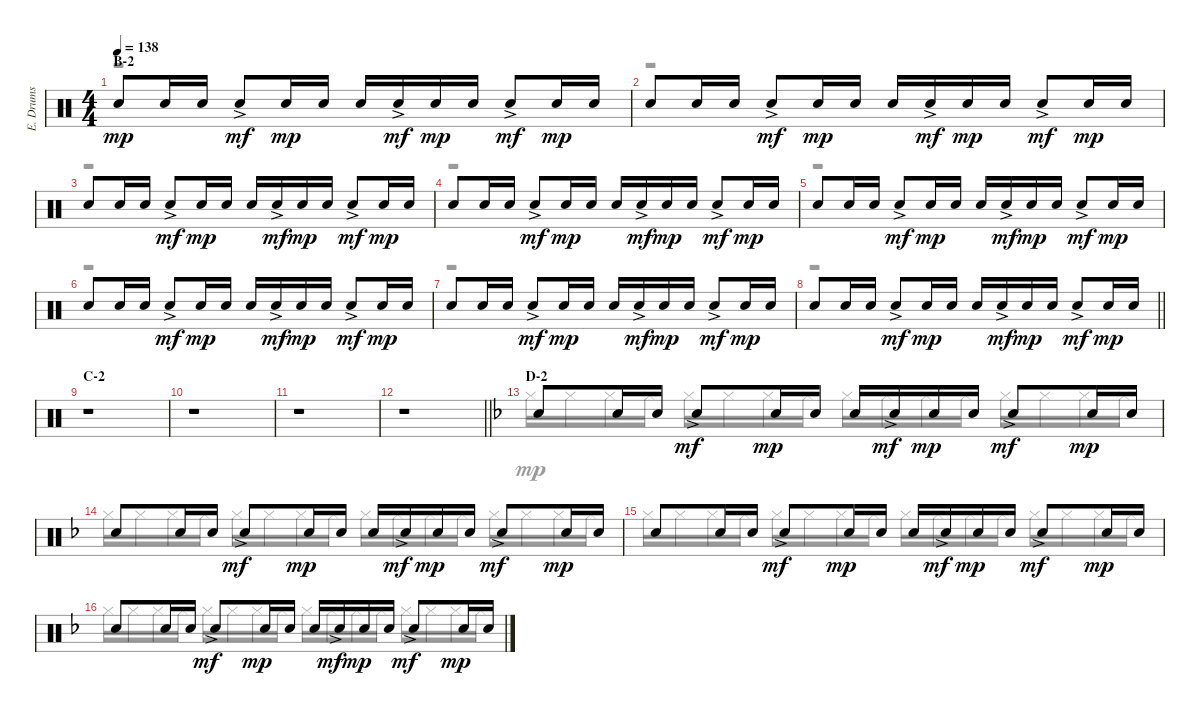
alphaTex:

\track ("E. Drums" "E. Drums") {instrument percussion}
\staff {score}
\articulation defaults
\voice
\ts (4 4)
\section ("" "B-2")
\tempo 138
\clef neutral
\ks c "Electric Snare (hit)".8{dy mp} "Electric Snare (hit)".16 "Electric Snare (hit)".16 "Electric Snare (hit)"{ac}.8{dy mf} "Electric Snare (hit)".16{dy mp} "Electric Snare (hit)".16 "Electric Snare (hit)".16 "Electric Snare (hit)"{ac}.16{dy mf} "Electric Snare (hit)".16{dy mp} "Electric Snare (hit)".16 "Electric Snare (hit)"{ac}.8{dy mf} "Electric Snare (hit)".16{dy mp} "Electric Snare (hit)".16
|
"Electric Snare (hit)".8 "Electric Snare (hit)".16 "Electric Snare (hit)".16 "Electric Snare (hit)"{ac}.8{dy mf} "Electric Snare (hit)".16{dy mp} "Electric Snare (hit)".16 "Electric Snare (hit)".16 "Electric Snare (hit)"{ac}.16{dy mf} "Electric Snare (hit)".16{dy mp} "Electric Snare (hit)".16 "Electric Snare (hit)"{ac}.8{dy mf} "Electric Snare (hit)".16{dy mp} "Electric Snare (hit)".16 |
"Electric Snare (hit)".8 "Electric Snare (hit)".16 "Electric Snare (hit)".16 "Electric Snare (hit)"{ac}.8{dy mf} "Electric Snare (hit)".16{dy mp} "Electric Snare (hit)".16 "Electric Snare (hit)".16 "Electric Snare (hit)"{ac}.16{dy mf} "Electric Snare (hit)".16{dy mp} "Electric Snare (hit)".16 "Electric Snare (hit)"{ac}.8{dy mf} "Electric Snare (hit)".16{dy mp} "Electric Snare (hit)".16 |
"Electric Snare (hit)".8 "Electric Snare (hit)".16 "Electric Snare (hit)".16 "Electric Snare (hit)"{ac}.8{dy mf} "Electric Snare (hit)".16{dy mp} "Electric Snare (hit)".16 "Electric Snare (hit)".16 "Electric Snare (hit)"{ac}.16{dy mf} "Electric Snare (hit)".16{dy mp} "Electric Snare (hit)".16 "Electric Snare (hit)"{ac}.8{dy mf} "Electric Snare (hit)".16{dy mp} "Electric Snare (hit)".16 |
"Electric Snare (hit)".8 "Electric Snare (hit)".16 "Electric Snare (hit)".16 "Electric Snare (hit)"{ac}.8{dy mf} "Electric Snare (hit)".16{dy mp} "Electric Snare (hit)".16 "Electric Snare (hit)".16 "Electric Snare (hit)"{ac}.16{dy mf} "Electric Snare (hit)".16{dy mp} "Electric Snare (hit)".16 "Electric Snare (hit)"{ac}.8{dy mf} "Electric Snare (hit)".16{dy mp} "Electric Snare (hit)".16 |
"Electric Snare (hit)".8 "Electric Snare (hit)".16 "Electric Snare (hit)".16 "Electric Snare (hit)"{ac}.8{dy mf} "Electric Snare (hit)".16{dy mp} "Electric Snare (hit)".16 "Electric Snare (hit)".16 "Electric Snare (hit)"{ac}.16{dy mf} "Electric Snare (hit)".16{dy mp} "Electric Snare (hit)".16 "Electric Snare (hit)"{ac}.8{dy mf} "Electric Snare (hit)".16{dy mp} "Electric Snare (hit)".16 |
"Electric Snare (hit)".8 "Electric Snare (hit)".16 "Electric Snare (hit)".16 "Electric Snare (hit)"{ac}.8{dy mf} "Electric Snare (hit)".16{dy mp} "Electric Snare (hit)".16 "Electric Snare (hit)".16 "Electric Snare (hit)"{ac}.16{dy mf} "Electric Snare (hit)".16{dy mp} "Electric Snare (hit)".16 "Electric Snare (hit)"{ac}.8{dy mf} "Electric Snare (hit)".16{dy mp} "Electric Snare (hit)".16 |
\barLineRight lightlight "Electric Snare (hit)".8 "Electric Snare (hit)".16 "Electric Snare (hit)".16 "Electric Snare (hit)"{ac}.8{dy mf} "Electric Snare (hit)".16{dy mp} "Electric Snare (hit)".16 "Electric Snare (hit)".16 "Electric Snare (hit)"{ac}.16{dy mf} "Electric Snare (hit)".16{dy mp} "Electric Snare (hit)".16 "Electric Snare (hit)"{ac}.8{dy mf} "Electric Snare (hit)".16{dy mp} "Electric Snare (hit)".16
|
\section ("" "C-2")
r.1 |
r.1 |
r.1 |
\barLineRight lightlight
r.1 |
\section ("" "D-2")
\ks f "Electric Snare (hit)".8 "Electric Snare (hit)".16 "Electric Snare (hit)".16 "Electric Snare (hit)"{ac}.8{dy mf} "Electric Snare (hit)".16{dy mp} "Electric Snare (hit)".16 "Electric Snare (hit)".16 "Electric Snare (hit)"{ac}.16{dy mf} "Electric Snare (hit)".16{dy mp} "Electric Snare (hit)".16 "Electric Snare (hit)"{ac}.8{dy mf} "Electric Snare (hit)".16{dy mp} "Electric Snare (hit)".16
|
"Electric Snare (hit)".8 "Electric Snare (hit)".16 "Electric Snare (hit)".16 "Electric Snare (hit)"{ac}.8{dy mf} "Electric Snare (hit)".16{dy mp} "Electric Snare (hit)".16 "Electric Snare (hit)".16 "Electric Snare (hit)"{ac}.16{dy mf} "Electric Snare (hit)".16{dy mp} "Electric Snare (hit)".16 "Electric Snare (hit)"{ac}.8{dy mf} "Electric Snare (hit)".16{dy mp} "Electric Snare (hit)".16 |
"Electric Snare (hit)".8 "Electric Snare (hit)".16 "Electric Snare (hit)".16 "Electric Snare (hit)"{ac}.8{dy mf} "Electric Snare (hit)".16{dy mp} "Electric Snare (hit)".16 "Electric Snare (hit)".16 "Electric Snare (hit)"{ac}.16{dy mf} "Electric Snare (hit)".16{dy mp} "Electric Snare (hit)".16 "Electric Snare (hit)"{ac}.8{dy mf} "Electric Snare (hit)".16{dy mp} "Electric Snare (hit)".16 |
"Electric Snare (hit)".8 "Electric Snare (hit)".16 "Electric Snare (hit)".16 "Electric Snare (hit)"{ac}.8{dy mf} "Electric Snare (hit)".16{dy mp} "Electric Snare (hit)".16 "Electric Snare (hit)".16 "Electric Snare (hit)"{ac}.16{dy mf} "Electric Snare (hit)".16{dy mp} "Electric Snare (hit)".16 "Electric Snare (hit)"{ac}.8{dy mf} "Electric Snare (hit)".16{dy mp} "Electric Snare (hit)".16
\voice
\clef neutral
\ottava regular
\simile none
\ks c
r.1{dy mp} |
r.1 |
r.1 |
r.1 |
r.1 |
r.1 |
r.1 |
\barLineRight lightlight
r.1 |
r.1 |
r.1 |
r.1 |
\barLineRight lightlight
r.1 |
\ks f "Hi-Hat (closed)".16 "Hi-Hat (closed)".16 "Hi-Hat (closed)".16 "Hi-Hat (closed)".16 "Hi-Hat (closed)".16 "Hi-Hat (closed)".16 "Hi-Hat (closed)".16 "Hi-Hat (closed)".16 "Hi-Hat (closed)".16 "Hi-Hat (closed)".16 "Hi-Hat (closed)".16 "Hi-Hat (closed)".16 "Hi-Hat (closed)".16 "Hi-Hat (closed)".16 "Hi-Hat (closed)".16 "Hi-Hat (closed)".16
|
"Hi-Hat (closed)".16 "Hi-Hat (closed)".16 "Hi-Hat (closed)".16 "Hi-Hat (closed)".16 "Hi-Hat (closed)".16 "Hi-Hat (closed)".16 "Hi-Hat (closed)".16 "Hi-Hat (closed)".16 "Hi-Hat (closed)".16 "Hi-Hat (closed)".16 "Hi-Hat (closed)".16 "Hi-Hat (closed)".16 "Hi-Hat (closed)".16 "Hi-Hat (closed)".16 "Hi-Hat (closed)".16 "Hi-Hat (closed)".16 |
"Hi-Hat (closed)".16 "Hi-Hat (closed)".16 "Hi-Hat (closed)".16 "Hi-Hat (closed)".16 "Hi-Hat (closed)".16 "Hi-Hat (closed)".16 "Hi-Hat (closed)".16 "Hi-Hat (closed)".16 "Hi-Hat (closed)".16 "Hi-Hat (closed)".16 "Hi-Hat (closed)".16 "Hi-Hat (closed)".16 "Hi-Hat (closed)".16 "Hi-Hat (closed)".16 "Hi-Hat (closed)".16 "Hi-Hat (closed)".16 |
"Hi-Hat (closed)".16 "Hi-Hat (closed)".16 "Hi-Hat (closed)".16 "Hi-Hat (closed)".16 "Hi-Hat (closed)".16 "Hi-Hat (closed)".16 "Hi-Hat (closed)".16 "Hi-Hat (closed)".16 "Hi-Hat (closed)".16 "Hi-Hat (closed)".16 "Hi-Hat (closed)".16 "Hi-Hat (closed)".16 "Hi-Hat (closed)".16 "Hi-Hat (closed)".16 "Hi-Hat (closed)".16 "Hi-Hat (closed)".16
